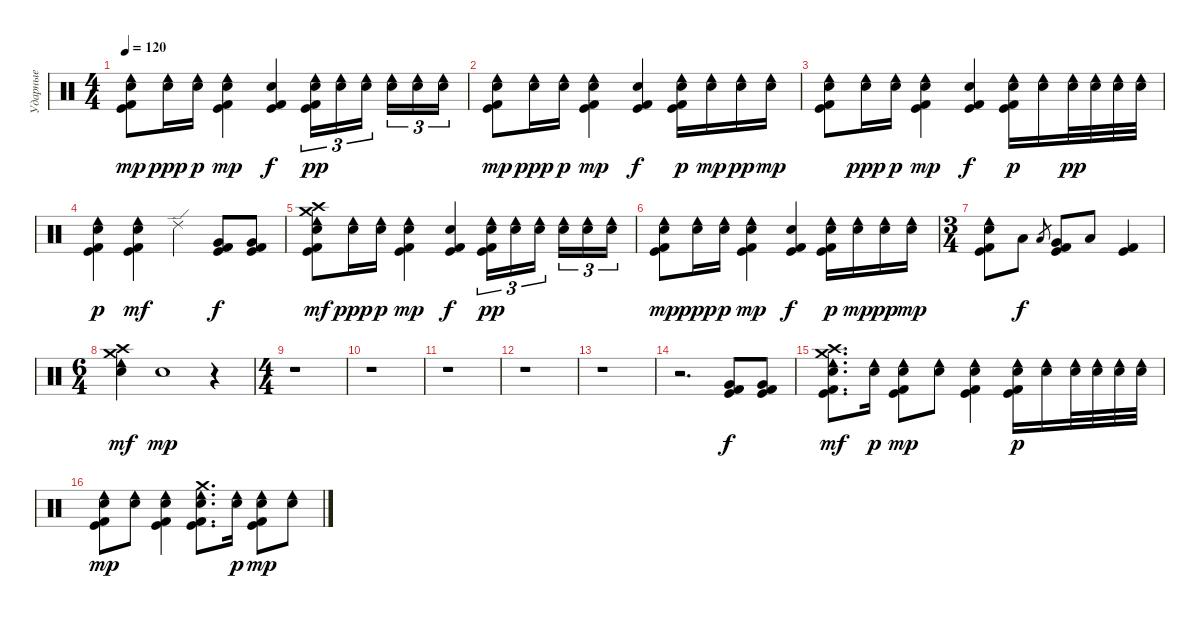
\track ("Ударные" "Ударные") {instrument percussion}
\staff {score}
\articulation defaults
\ts (4 4)
\tempo 120
\clef neutral
\ks c
("Kick (hit) 2" "Kick (hit)" "Electric Snare (hit)" "Cowbell low (hit)").8{dy mp} ("Electric Snare (hit)" "Cowbell low (hit)").16{dy ppp} ("Electric Snare (hit)" "Cowbell low (hit)").16{dy p} ("Kick (hit) 2" "Kick (hit)" "Electric Snare (hit)" "Cowbell low (hit)").4{dy mp} ("Kick (hit) 2" "Kick (hit)" "Snare (hit)").4{dy f} ("Kick (hit) 2" "Kick (hit)" "Electric Snare (hit)" "Cowbell low (hit)").16{tu (3 2) dy pp} ("Electric Snare (hit)" "Cowbell low (hit)").16{tu (3 2)} ("Electric Snare (hit)" "Cowbell low (hit)").16{tu (3 2) beam splitsecondary} ("Electric Snare (hit)" "Cowbell low (hit)").16{tu (3 2)} ("Electric Snare (hit)" "Cowbell low (hit)").16{tu (3 2)} ("Electric Snare (hit)" "Cowbell low (hit)").16{tu (3 2)} |
("Kick (hit) 2" "Kick (hit)" "Electric Snare (hit)" "Cowbell low (hit)").8{dy mp} ("Electric Snare (hit)" "Cowbell low (hit)").16{dy ppp} ("Electric Snare (hit)" "Cowbell low (hit)").16{dy p} ("Kick (hit) 2" "Kick (hit)" "Electric Snare (hit)" "Cowbell low (hit)").4{dy mp} ("Kick (hit) 2" "Kick (hit)" "Snare (hit)").4{dy f} ("Kick (hit) 2" "Kick (hit)" "Electric Snare (hit)" "Cowbell low (hit)").16{dy p} ("Electric Snare (hit)" "Cowbell low (hit)").16{dy mp} ("Electric Snare (hit)" "Cowbell low (hit)").16{dy pp} ("Electric Snare (hit)" "Cowbell low (hit)").16{dy mp} |
("Kick (hit) 2" "Kick (hit)" "Electric Snare (hit)" "Cowbell low (hit)").8 ("Electric Snare (hit)" "Cowbell low (hit)").16{dy ppp} ("Electric Snare (hit)" "Cowbell low (hit)").16{dy p} ("Kick (hit) 2" "Kick (hit)" "Electric Snare (hit)" "Cowbell low (hit)").4{dy mp} ("Kick (hit) 2" "Kick (hit)" "Snare (hit)").4{dy f} ("Kick (hit) 2" "Kick (hit)" "Electric Snare (hit)" "Cowbell low (hit)").16{dy p} ("Electric Snare (hit)" "Cowbell low (hit)").16 ("Electric Snare (hit)" "Cowbell low (hit)").32{dy pp} ("Electric Snare (hit)" "Cowbell low (hit)").32 ("Electric Snare (hit)" "Cowbell low (hit)").32 ("Electric Snare (hit)" "Cowbell low (hit)").32 |
("Kick (hit) 2" "Kick (hit)" "Electric Snare (hit)" "Cowbell low (hit)").4{dy p} ("Kick (hit) 2" "Kick (hit)" "Electric Snare (hit)" "Cowbell low (hit)").4{dy mf} "Ride (edge) 2".4 ("Kick (hit) 2" "Kick (hit)" "Very Low Tom (hit)").8{dy f} ("Kick (hit) 2" "Kick (hit)" "Very Low Tom (hit)").8 |
("Kick (hit) 2" "Kick (hit)" "Electric Snare (hit)" "Cowbell low (hit)" "Crash high (hit)" "Crash medium (hit)").8{dy mf} ("Electric Snare (hit)" "Cowbell low (hit)").16{dy ppp} ("Electric Snare (hit)" "Cowbell low (hit)").16{dy p} ("Kick (hit) 2" "Kick (hit)" "Electric Snare (hit)" "Cowbell low (hit)").4{dy mp} ("Kick (hit) 2" "Kick (hit)" "Snare (hit)").4{dy f} ("Kick (hit) 2" "Kick (hit)" "Electric Snare (hit)" "Cowbell low (hit)").16{tu (3 2) dy pp} ("Electric Snare (hit)" "Cowbell low (hit)").16{tu (3 2)} ("Electric Snare (hit)" "Cowbell low (hit)").16{tu (3 2) beam splitsecondary} ("Electric Snare (hit)" "Cowbell low (hit)").16{tu (3 2)} ("Electric Snare (hit)" "Cowbell low (hit)").16{tu (3 2)} ("Electric Snare (hit)" "Cowbell low (hit)").16{tu (3 2)} |
("Kick (hit) 2" "Kick (hit)" "Electric Snare (hit)" "Cowbell low (hit)").8{dy mp} ("Electric Snare (hit)" "Cowbell low (hit)").16{dy ppp} ("Electric Snare (hit)" "Cowbell low (hit)").16{dy p} ("Kick (hit) 2" "Kick (hit)" "Electric Snare (hit)" "Cowbell low (hit)").4{dy mp} ("Kick (hit) 2" "Kick (hit)" "Snare (hit)").4{dy f} ("Kick (hit) 2" "Kick (hit)" "Electric Snare (hit)" "Cowbell low (hit)").16{dy p} ("Electric Snare (hit)" "Cowbell low (hit)").16{dy mp} ("Electric Snare (hit)" "Cowbell low (hit)").16{dy pp} ("Electric Snare (hit)" "Cowbell low (hit)").16{dy mp} |
\ts (3 4)
("Kick (hit) 2" "Kick (hit)" "Electric Snare (hit)" "Cowbell low (hit)").8 "Low Tom (hit)".8{dy f} "Low Tom (hit)".8{gr} ("Kick (hit) 2" "Kick (hit)" "Very Low Tom (hit)").8 "Low Floor Tom (hit)".8 ("Kick (hit) 2" "Kick (hit)").4 |
\ts (6 4)
("Electric Snare (hit)" "Cowbell low (hit)" "Crash high (hit)" "Crash medium (hit)").4{dy mf} "Snare (hit)".1{dy mp} r.4 |
\ts (4 4)
r.1 |
r.1 |
r.1 |
r.1 |
r.1 |
r.2{d} ("Kick (hit) 2" "Kick (hit)" "Very Low Tom (hit)").8{dy f} ("Kick (hit) 2" "Kick (hit)" "Very Low Tom (hit)").8 |
("Kick (hit) 2" "Kick (hit)" "Electric Snare (hit)" "Cowbell low (hit)" "Crash high (hit)" "Crash medium (hit)").8{d dy mf} ("Electric Snare (hit)" "Cowbell low (hit)").16{dy p} ("Kick (hit) 2" "Kick (hit)" "Electric Snare (hit)" "Cowbell low (hit)").8{dy mp} ("Electric Snare (hit)" "Cowbell low (hit)").8 ("Kick (hit) 2" "Kick (hit)" "Electric Snare (hit)" "Cowbell low (hit)").4 ("Kick (hit) 2" "Kick (hit)" "Electric Snare (hit)" "Cowbell low (hit)").16{dy p} ("Electric Snare (hit)" "Cowbell low (hit)").16 ("Electric Snare (hit)" "Cowbell low (hit)").32 ("Electric Snare (hit)" "Cowbell low (hit)").32 ("Electric Snare (hit)" "Cowbell low (hit)").32 ("Electric Snare (hit)" "Cowbell low (hit)").32 |
("Kick (hit) 2" "Kick (hit)" "Electric Snare (hit)" "Cowbell low (hit)").8{dy mp} ("Electric Snare (hit)" "Cowbell low (hit)").8 ("Kick (hit) 2" "Kick (hit)" "Electric Snare (hit)" "Cowbell low (hit)").4 ("Kick (hit) 2" "Kick (hit)" "Electric Snare (hit)" "Cowbell low (hit)" "Crash medium (hit)").8{d} ("Electric Snare (hit)" "Cowbell low (hit)").16{dy p} ("Kick (hit) 2" "Kick (hit)" "Electric Snare (hit)" "Cowbell low (hit)").8{dy mp} ("Electric Snare (hit)" "Cowbell low (hit)").8
